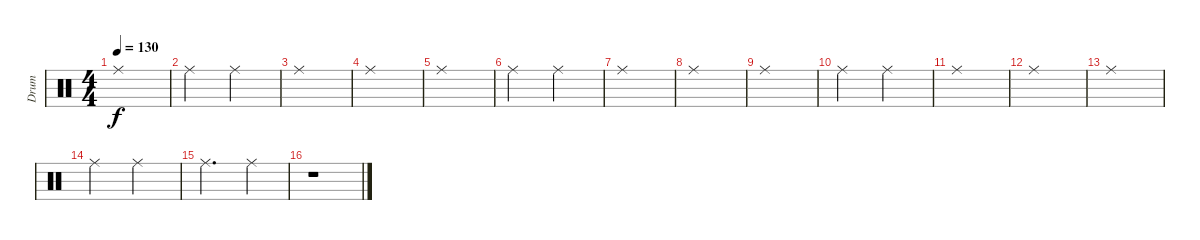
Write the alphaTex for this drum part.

\track ("Drum" "Drum") {instrument percussion}
\staff {score}
\articulation defaults
\ts (4 4)
\tempo 130
\clef neutral
\ks c "Ride (middle)".1{dy f}
|
"Ride (middle)".2 "Ride (middle)".2 |
"Ride (middle)".1 |
"Ride (middle)".1 |
"Ride (middle)".1 |
"Ride (middle)".2 "Ride (middle)".2 |
"Ride (middle)".1 |
"Ride (middle)".1 |
"Ride (middle)".1 |
"Ride (middle)".2 "Ride (middle)".2 |
"Ride (middle)".1 |
"Ride (middle)".1 |
"Ride (middle)".1 |
"Ride (middle)".2 "Ride (middle)".2 |
"Ride (middle)".2{d} "Ride (middle)".4 |
r.1
